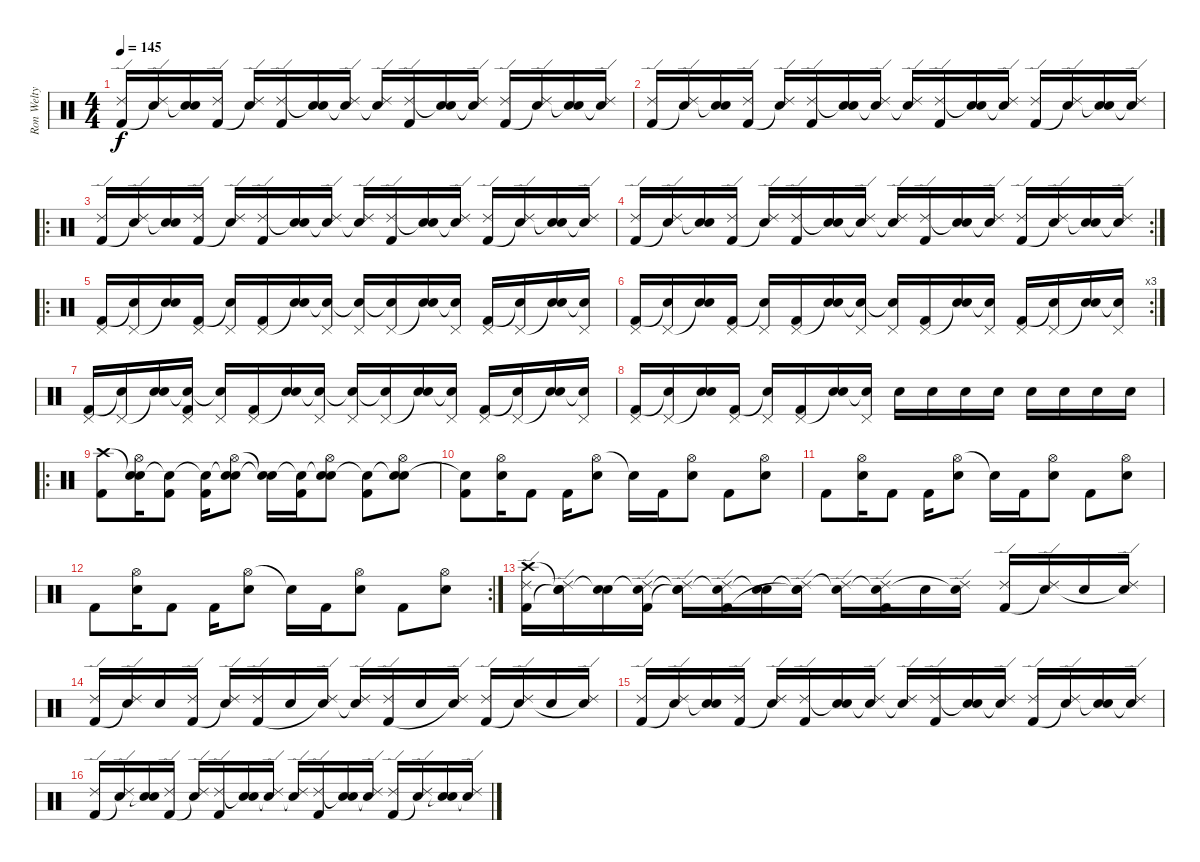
\track ("Ron Welty" "Ron Welty") {instrument percussion}
\staff {score}
\articulation defaults
\ts (4 4)
\tempo 145
\clef neutral
\ks c
("Ride (edge) 2" "Kick (hit) 2").16{dy f} ("Ride (edge) 2" "Snare (hit)"{t}).16 ("Snare (hit)"{t} "Electric Snare (hit)").16 ("Ride (edge) 2" "Kick (hit) 2").16 ("Ride (edge) 2" "Snare (hit)"{t}).16 ("Ride (edge) 2" "Kick (hit) 2").16 ("Snare (hit)"{t} "Electric Snare (hit)").16 ("Ride (edge) 2" "Snare (hit)"{t}).16 ("Ride (edge) 2" "Snare (hit)"{t}).16 ("Ride (edge) 2" "Kick (hit) 2").16 ("Snare (hit)"{t} "Electric Snare (hit)").16 ("Ride (edge) 2" "Snare (hit)"{t}).16 ("Ride (edge) 2" "Kick (hit) 2").16 ("Ride (edge) 2" "Snare (hit)"{t}).16 ("Snare (hit)"{t} "Electric Snare (hit)").16 ("Ride (edge) 2" "Snare (hit)"{t}).16 |
("Ride (edge) 2" "Kick (hit) 2").16 ("Ride (edge) 2" "Snare (hit)"{t}).16 ("Snare (hit)"{t} "Electric Snare (hit)").16 ("Ride (edge) 2" "Kick (hit) 2").16 ("Ride (edge) 2" "Snare (hit)"{t}).16 ("Ride (edge) 2" "Kick (hit) 2").16 ("Snare (hit)"{t} "Electric Snare (hit)").16 ("Ride (edge) 2" "Snare (hit)"{t}).16 ("Ride (edge) 2" "Snare (hit)"{t}).16 ("Ride (edge) 2" "Kick (hit) 2").16 ("Snare (hit)"{t} "Electric Snare (hit)").16 ("Ride (edge) 2" "Snare (hit)"{t}).16 ("Ride (edge) 2" "Kick (hit) 2").16 ("Ride (edge) 2" "Snare (hit)"{t}).16 ("Snare (hit)"{t} "Electric Snare (hit)").16 ("Ride (edge) 2" "Snare (hit)"{t}).16 |
\ro
("Ride (edge) 2" "Kick (hit) 2").16 ("Ride (edge) 2" "Snare (hit)"{t}).16 ("Snare (hit)"{t} "Electric Snare (hit)").16 ("Ride (edge) 2" "Kick (hit) 2").16 ("Ride (edge) 2" "Snare (hit)"{t}).16 ("Ride (edge) 2" "Kick (hit) 2").16 ("Snare (hit)"{t} "Electric Snare (hit)").16 ("Ride (edge) 2" "Snare (hit)"{t}).16 ("Ride (edge) 2" "Snare (hit)"{t}).16 ("Ride (edge) 2" "Kick (hit) 2").16 ("Snare (hit)"{t} "Electric Snare (hit)").16 ("Ride (edge) 2" "Snare (hit)"{t}).16 ("Ride (edge) 2" "Kick (hit) 2").16 ("Ride (edge) 2" "Snare (hit)"{t}).16 ("Snare (hit)"{t} "Electric Snare (hit)").16 ("Ride (edge) 2" "Snare (hit)"{t}).16 |
\rc 2
("Ride (edge) 2" "Kick (hit) 2").16 ("Ride (edge) 2" "Snare (hit)"{t}).16 ("Snare (hit)"{t} "Electric Snare (hit)").16 ("Ride (edge) 2" "Kick (hit) 2").16 ("Ride (edge) 2" "Snare (hit)"{t}).16 ("Ride (edge) 2" "Kick (hit) 2").16 ("Snare (hit)"{t} "Electric Snare (hit)").16 ("Ride (edge) 2" "Snare (hit)"{t}).16 ("Ride (edge) 2" "Snare (hit)"{t}).16 ("Ride (edge) 2" "Kick (hit) 2").16 ("Snare (hit)"{t} "Electric Snare (hit)").16 ("Ride (edge) 2" "Snare (hit)"{t}).16 ("Ride (edge) 2" "Kick (hit) 2").16 ("Ride (edge) 2" "Snare (hit)"{t}).16 ("Snare (hit)"{t} "Electric Snare (hit)").16 ("Ride (edge) 2" "Snare (hit)"{t}).16 |
\ro
("Pedal Hi-Hat (hit)" "Kick (hit) 2").16 ("Pedal Hi-Hat (hit)" "Snare (hit)"{t}).16 ("Snare (hit)"{t} "Electric Snare (hit)").16 ("Pedal Hi-Hat (hit)" "Kick (hit) 2").16 ("Pedal Hi-Hat (hit)" "Snare (hit)"{t}).16 ("Pedal Hi-Hat (hit)" "Kick (hit) 2").16 ("Snare (hit)"{t} "Electric Snare (hit)").16 ("Pedal Hi-Hat (hit)" "Snare (hit)"{t}).16 ("Pedal Hi-Hat (hit)" "Snare (hit)"{t}).16 ("Pedal Hi-Hat (hit)" "Snare (hit)"{t}).16 ("Snare (hit)"{t} "Electric Snare (hit)").16 ("Pedal Hi-Hat (hit)" "Snare (hit)"{t}).16 ("Pedal Hi-Hat (hit)" "Kick (hit) 2").16 ("Pedal Hi-Hat (hit)" "Snare (hit)"{t}).16 ("Snare (hit)"{t} "Electric Snare (hit)").16 ("Pedal Hi-Hat (hit)" "Snare (hit)"{t}).16 |
\rc 3
("Pedal Hi-Hat (hit)" "Kick (hit) 2").16 ("Pedal Hi-Hat (hit)" "Snare (hit)"{t}).16 ("Snare (hit)"{t} "Electric Snare (hit)").16 ("Pedal Hi-Hat (hit)" "Kick (hit) 2").16 ("Pedal Hi-Hat (hit)" "Snare (hit)"{t}).16 ("Pedal Hi-Hat (hit)" "Kick (hit) 2").16 ("Snare (hit)"{t} "Electric Snare (hit)").16 ("Pedal Hi-Hat (hit)" "Snare (hit)"{t}).16 ("Pedal Hi-Hat (hit)" "Snare (hit)"{t}).16 ("Pedal Hi-Hat (hit)" "Kick (hit) 2").16 ("Snare (hit)"{t} "Electric Snare (hit)").16 ("Pedal Hi-Hat (hit)" "Snare (hit)"{t}).16 ("Pedal Hi-Hat (hit)" "Kick (hit) 2").16 ("Pedal Hi-Hat (hit)" "Snare (hit)"{t}).16 ("Snare (hit)"{t} "Electric Snare (hit)").16 ("Pedal Hi-Hat (hit)" "Snare (hit)"{t}).16 |
("Pedal Hi-Hat (hit)" "Kick (hit) 2").16 ("Pedal Hi-Hat (hit)" "Snare (hit)"{t}).16 ("Snare (hit)"{t} "Electric Snare (hit)").16 ("Pedal Hi-Hat (hit)" "Snare (hit)"{t} "Kick (hit) 2").16 ("Pedal Hi-Hat (hit)" "Snare (hit)"{t}).16 ("Pedal Hi-Hat (hit)" "Kick (hit) 2").16 ("Snare (hit)"{t} "Electric Snare (hit)").16 ("Pedal Hi-Hat (hit)" "Snare (hit)"{t}).16 ("Pedal Hi-Hat (hit)" "Snare (hit)"{t}).16 ("Pedal Hi-Hat (hit)" "Snare (hit)"{t}).16 ("Snare (hit)"{t} "Electric Snare (hit)").16 ("Pedal Hi-Hat (hit)" "Snare (hit)"{t}).16 ("Pedal Hi-Hat (hit)" "Kick (hit) 2").16 ("Pedal Hi-Hat (hit)" "Snare (hit)"{t}).16 ("Snare (hit)"{t} "Electric Snare (hit)").16 ("Pedal Hi-Hat (hit)" "Snare (hit)"{t}).16 |
("Pedal Hi-Hat (hit)" "Kick (hit) 2").16 ("Pedal Hi-Hat (hit)" "Snare (hit)"{t}).16 ("Snare (hit)"{t} "Electric Snare (hit)").16 ("Pedal Hi-Hat (hit)" "Kick (hit) 2").16 ("Pedal Hi-Hat (hit)" "Snare (hit)"{t}).16 ("Pedal Hi-Hat (hit)" "Kick (hit) 2").16 ("Snare (hit)"{t} "Electric Snare (hit)").16 ("Pedal Hi-Hat (hit)" "Snare (hit)"{t}).16 "Electric Snare (hit)".16 "Electric Snare (hit)".16 "Electric Snare (hit)".16 "Electric Snare (hit)".16 "Electric Snare (hit)".16 "Electric Snare (hit)".16 "Electric Snare (hit)".16 "Electric Snare (hit)".16 |
\ro
("Crash high (hit)" "Kick (hit) 2").8 ("Snare (hit)"{t} "Hi-Hat (open)" "Electric Snare (hit)").16 ("Snare (hit)"{t} "Kick (hit) 2").8 ("Snare (hit)"{t} "Kick (hit) 2").16 ("Snare (hit)"{t} "Hi-Hat (open)" "Electric Snare (hit)").8 ("Snare (hit)"{t} "Snare (hit)"{t}).16 ("Snare (hit)"{t} "Kick (hit) 2").16 ("Snare (hit)"{t} "Hi-Hat (open)" "Electric Snare (hit)").8 ("Snare (hit)"{t} "Kick (hit) 2").8 ("Snare (hit)"{t} "Hi-Hat (open)" "Electric Snare (hit)").8 |
("Snare (hit)"{t} "Kick (hit) 2").8 ("Hi-Hat (open)" "Electric Snare (hit)").16 "Kick (hit) 2".8 "Kick (hit) 2".16 ("Hi-Hat (open)" "Electric Snare (hit)").8 "Snare (hit)"{t}.16 "Kick (hit) 2".16 ("Hi-Hat (open)" "Electric Snare (hit)").8 "Kick (hit) 2".8 ("Hi-Hat (open)" "Electric Snare (hit)").8 |
"Kick (hit) 2".8 ("Hi-Hat (open)" "Electric Snare (hit)").16 "Kick (hit) 2".8 "Kick (hit) 2".16 ("Hi-Hat (open)" "Electric Snare (hit)").8 "Snare (hit)"{t}.16 "Kick (hit) 2".16 ("Hi-Hat (open)" "Electric Snare (hit)").8 "Kick (hit) 2".8 ("Hi-Hat (open)" "Electric Snare (hit)").8 |
\rc 2 "Kick (hit) 2".8
("Hi-Hat (open)" "Electric Snare (hit)").16 "Kick (hit) 2".8 "Kick (hit) 2".16 ("Hi-Hat (open)" "Electric Snare (hit)").8 "Snare (hit)"{t}.16 "Kick (hit) 2".16 ("Hi-Hat (open)" "Electric Snare (hit)").8 "Kick (hit) 2".8 ("Hi-Hat (open)" "Electric Snare (hit)").8 |
("Crash high (hit)" "Ride (edge) 2" "Kick (hit) 2").16 ("Snare (hit)"{t} "Ride (edge) 2" "Snare (hit)"{t}).16 ("Snare (hit)"{t} "Electric Snare (hit)").16 ("Snare (hit)"{t} "Ride (edge) 2" "Kick (hit) 2").16 ("Snare (hit)"{t} "Ride (edge) 2" "Snare (hit)"{t}).16 ("Snare (hit)"{t} "Ride (edge) 2" "Kick (hit) 2").16 ("Snare (hit)"{t} "Electric Snare (hit)").16 ("Snare (hit)"{t} "Ride (edge) 2" "Snare (hit)"{t}).16 ("Ride (edge) 2" "Snare (hit)"{t}).16 ("Ride (edge) 2" "Snare (hit)"{t} "Kick (hit) 2").16 "Electric Snare (hit)".16 ("Ride (edge) 2" "Electric Snare (hit)"{t}).16 ("Ride (edge) 2" "Kick (hit) 2").16 ("Ride (edge) 2" "Snare (hit)"{t}).16 "Electric Snare (hit)".16 ("Ride (edge) 2" "Snare (hit)"{t}).16 |
("Ride (edge) 2" "Kick (hit) 2").16 ("Ride (edge) 2" "Snare (hit)"{t}).16 "Electric Snare (hit)".16 ("Ride (edge) 2" "Kick (hit) 2").16 ("Ride (edge) 2" "Snare (hit)"{t}).16 ("Ride (edge) 2" "Kick (hit) 2").16 "Electric Snare (hit)".16 ("Ride (edge) 2" "Snare (hit)"{t}).16 ("Ride (edge) 2" "Snare (hit)"{t}).16 ("Ride (edge) 2" "Kick (hit) 2").16 "Electric Snare (hit)".16 ("Ride (edge) 2" "Snare (hit)"{t}).16 ("Ride (edge) 2" "Kick (hit) 2").16 ("Ride (edge) 2" "Snare (hit)"{t}).16 "Electric Snare (hit)".16 ("Ride (edge) 2" "Snare (hit)"{t}).16 |
("Ride (edge) 2" "Kick (hit) 2").16 ("Ride (edge) 2" "Snare (hit)"{t}).16 ("Snare (hit)"{t} "Electric Snare (hit)").16 ("Ride (edge) 2" "Kick (hit) 2").16 ("Ride (edge) 2" "Snare (hit)"{t}).16 ("Ride (edge) 2" "Kick (hit) 2").16 ("Snare (hit)"{t} "Electric Snare (hit)").16 ("Ride (edge) 2" "Snare (hit)"{t}).16 ("Ride (edge) 2" "Snare (hit)"{t}).16 ("Ride (edge) 2" "Kick (hit) 2").16 ("Snare (hit)"{t} "Electric Snare (hit)").16 ("Ride (edge) 2" "Snare (hit)"{t}).16 ("Ride (edge) 2" "Kick (hit) 2").16 ("Ride (edge) 2" "Snare (hit)"{t}).16 ("Snare (hit)"{t} "Electric Snare (hit)").16 ("Ride (edge) 2" "Snare (hit)"{t}).16 |
("Ride (edge) 2" "Kick (hit) 2").16 ("Ride (edge) 2" "Snare (hit)"{t}).16 ("Snare (hit)"{t} "Electric Snare (hit)").16 ("Ride (edge) 2" "Kick (hit) 2").16 ("Ride (edge) 2" "Snare (hit)"{t}).16 ("Ride (edge) 2" "Kick (hit) 2").16 ("Snare (hit)"{t} "Electric Snare (hit)").16 ("Ride (edge) 2" "Snare (hit)"{t}).16 ("Ride (edge) 2" "Snare (hit)"{t}).16 ("Ride (edge) 2" "Kick (hit) 2").16 ("Snare (hit)"{t} "Electric Snare (hit)").16 ("Ride (edge) 2" "Snare (hit)"{t}).16 ("Ride (edge) 2" "Kick (hit) 2").16 ("Ride (edge) 2" "Snare (hit)"{t}).16 ("Snare (hit)"{t} "Electric Snare (hit)").16 ("Ride (edge) 2" "Snare (hit)"{t}).16
